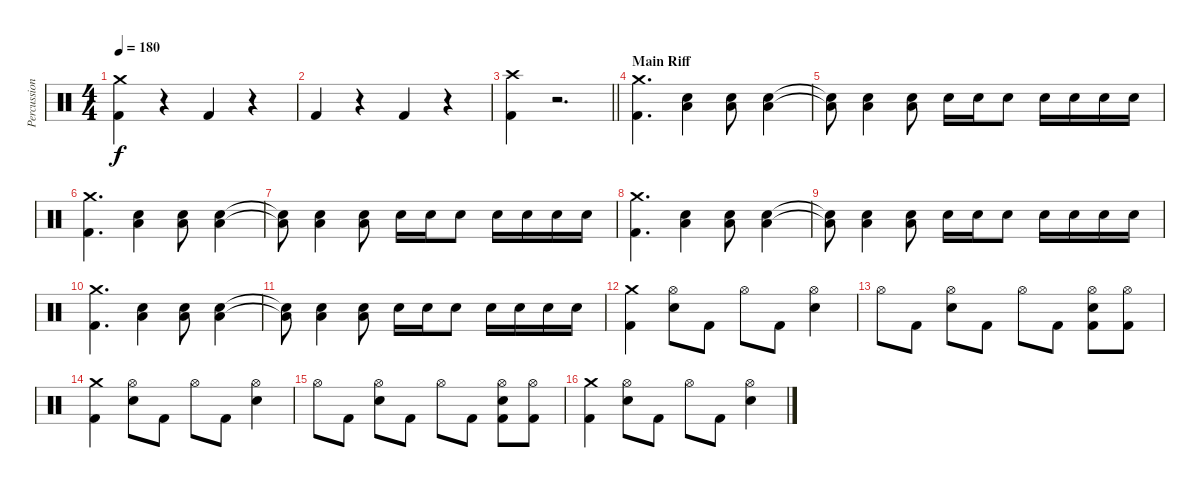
\track ("Percussion" "Percussion") {instrument percussion}
\staff {score}
\articulation defaults
\ts (4 4)
\tempo 180
\clef neutral
\ks c
("Crash medium (hit)" "Kick (hit) 2").4{dy f} r.4 "Kick (hit) 2".4 r.4 |
"Kick (hit) 2".4 r.4 "Kick (hit) 2".4 r.4 |
\barLineRight lightlight
("Crash high (hit)" "Kick (hit) 2").4 r.2{d} |
\section ("" "Main Riff")
("Crash medium (hit)" "Kick (hit) 2").4{d} ("Snare (hit) 2" "Low Floor Tom (hit)").4 ("Snare (hit) 2" "Low Floor Tom (hit)").8 ("Snare (hit) 2" "Low Floor Tom (hit)").4 |
("Snare (hit) 2"{t} "Low Floor Tom (hit)"{t}).8 ("Snare (hit) 2" "Low Floor Tom (hit)").4 ("Snare (hit) 2" "Low Floor Tom (hit)").8 "Snare (hit) 2".16 "Snare (hit) 2".16 "Snare (hit) 2".8 "Snare (hit) 2".16 "Snare (hit) 2".16 "Snare (hit) 2".16 "Snare (hit) 2".16 |
("Crash medium (hit)" "Kick (hit) 2").4{d} ("Snare (hit) 2" "Low Floor Tom (hit)").4 ("Snare (hit) 2" "Low Floor Tom (hit)").8 ("Snare (hit) 2" "Low Floor Tom (hit)").4 |
("Snare (hit) 2"{t} "Low Floor Tom (hit)"{t}).8 ("Snare (hit) 2" "Low Floor Tom (hit)").4 ("Snare (hit) 2" "Low Floor Tom (hit)").8 "Snare (hit) 2".16 "Snare (hit) 2".16 "Snare (hit) 2".8 "Snare (hit) 2".16 "Snare (hit) 2".16 "Snare (hit) 2".16 "Snare (hit) 2".16 |
("Crash medium (hit)" "Kick (hit) 2").4{d} ("Snare (hit) 2" "Low Floor Tom (hit)").4 ("Snare (hit) 2" "Low Floor Tom (hit)").8 ("Snare (hit) 2" "Low Floor Tom (hit)").4 |
("Snare (hit) 2"{t} "Low Floor Tom (hit)"{t}).8 ("Snare (hit) 2" "Low Floor Tom (hit)").4 ("Snare (hit) 2" "Low Floor Tom (hit)").8 "Snare (hit) 2".16 "Snare (hit) 2".16 "Snare (hit) 2".8 "Snare (hit) 2".16 "Snare (hit) 2".16 "Snare (hit) 2".16 "Snare (hit) 2".16 |
("Crash medium (hit)" "Kick (hit) 2").4{d} ("Snare (hit) 2" "Low Floor Tom (hit)").4 ("Snare (hit) 2" "Low Floor Tom (hit)").8 ("Snare (hit) 2" "Low Floor Tom (hit)").4 |
("Snare (hit) 2"{t} "Low Floor Tom (hit)"{t}).8 ("Snare (hit) 2" "Low Floor Tom (hit)").4 ("Snare (hit) 2" "Low Floor Tom (hit)").8 "Snare (hit) 2".16 "Snare (hit) 2".16 "Snare (hit) 2".8 "Snare (hit) 2".16 "Snare (hit) 2".16 "Snare (hit) 2".16 "Snare (hit) 2".16 |
("Crash medium (hit)" "Kick (hit) 2").4 ("Hi-Hat (open)" "Snare (hit) 2").8 "Kick (hit) 2".8 "Hi-Hat (open)".8 "Kick (hit) 2".8 ("Hi-Hat (open)" "Snare (hit) 2").4 |
"Hi-Hat (open)".8 "Kick (hit) 2".8 ("Hi-Hat (open)" "Snare (hit) 2").8 "Kick (hit) 2".8 "Hi-Hat (open)".8 "Kick (hit) 2".8 ("Hi-Hat (open)" "Snare (hit) 2" "Kick (hit) 2").8 ("Hi-Hat (open)" "Kick (hit) 2").8 |
("Crash medium (hit)" "Kick (hit) 2").4 ("Hi-Hat (open)" "Snare (hit) 2").8 "Kick (hit) 2".8 "Hi-Hat (open)".8 "Kick (hit) 2".8 ("Hi-Hat (open)" "Snare (hit) 2").4 |
"Hi-Hat (open)".8 "Kick (hit) 2".8 ("Hi-Hat (open)" "Snare (hit) 2").8 "Kick (hit) 2".8 "Hi-Hat (open)".8 "Kick (hit) 2".8 ("Hi-Hat (open)" "Snare (hit) 2" "Kick (hit) 2").8 ("Hi-Hat (open)" "Kick (hit) 2").8 |
("Crash medium (hit)" "Kick (hit) 2").4 ("Hi-Hat (open)" "Snare (hit) 2").8 "Kick (hit) 2".8 "Hi-Hat (open)".8 "Kick (hit) 2".8 ("Hi-Hat (open)" "Snare (hit) 2").4
